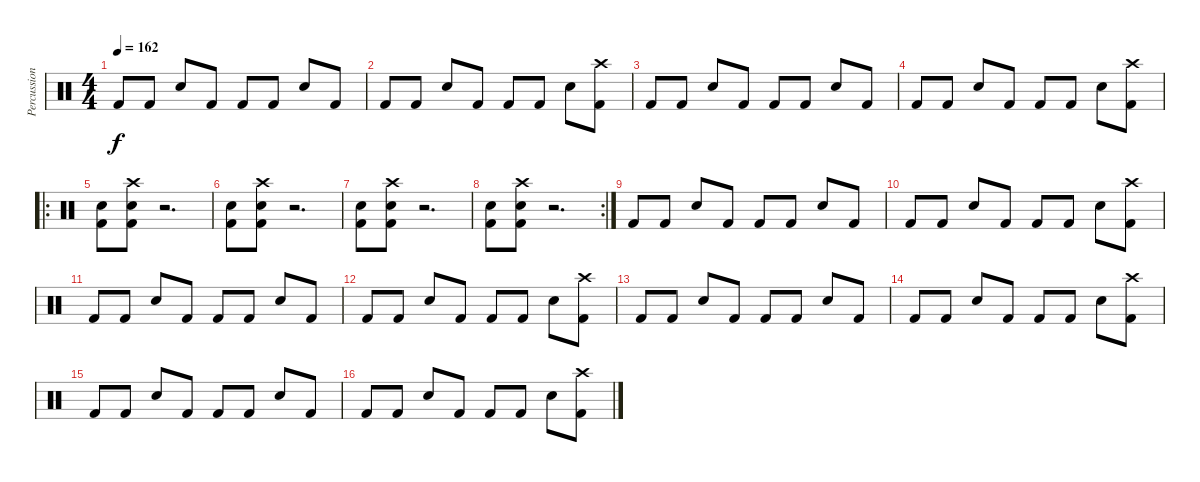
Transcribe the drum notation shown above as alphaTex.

\track ("Percussion" "Percussion") {instrument percussion}
\staff {score}
\articulation defaults
\ts (4 4)
\tempo 162
\clef neutral
\ks c "Kick (hit) 2".8{dy f} "Kick (hit) 2".8 "Snare (hit) 2".8 "Kick (hit) 2".8 "Kick (hit) 2".8 "Kick (hit) 2".8 "Snare (hit) 2".8 "Kick (hit) 2".8
|
"Kick (hit) 2".8 "Kick (hit) 2".8 "Snare (hit) 2".8 "Kick (hit) 2".8 "Kick (hit) 2".8 "Kick (hit) 2".8 "Snare (hit) 2".8 ("Crash high (hit)" "Kick (hit) 2").8 |
"Kick (hit) 2".8 "Kick (hit) 2".8 "Snare (hit) 2".8 "Kick (hit) 2".8 "Kick (hit) 2".8 "Kick (hit) 2".8 "Snare (hit) 2".8 "Kick (hit) 2".8 |
"Kick (hit) 2".8 "Kick (hit) 2".8 "Snare (hit) 2".8 "Kick (hit) 2".8 "Kick (hit) 2".8 "Kick (hit) 2".8 "Snare (hit) 2".8 ("Crash high (hit)" "Kick (hit) 2").8 |
\ro
("Snare (hit) 2" "Kick (hit) 2").8 ("Crash high (hit)" "Snare (hit) 2" "Kick (hit) 2").8 r.2{d} |
("Snare (hit) 2" "Kick (hit) 2").8 ("Crash high (hit)" "Snare (hit) 2" "Kick (hit) 2").8 r.2{d} |
("Snare (hit) 2" "Kick (hit) 2").8 ("Crash high (hit)" "Snare (hit) 2" "Kick (hit) 2").8 r.2{d} |
\rc 2
("Snare (hit) 2" "Kick (hit) 2").8 ("Crash high (hit)" "Snare (hit) 2" "Kick (hit) 2").8 r.2{d} |
"Kick (hit) 2".8 "Kick (hit) 2".8 "Snare (hit) 2".8 "Kick (hit) 2".8 "Kick (hit) 2".8 "Kick (hit) 2".8 "Snare (hit) 2".8 "Kick (hit) 2".8 |
"Kick (hit) 2".8 "Kick (hit) 2".8 "Snare (hit) 2".8 "Kick (hit) 2".8 "Kick (hit) 2".8 "Kick (hit) 2".8 "Snare (hit) 2".8 ("Crash high (hit)" "Kick (hit) 2").8 |
"Kick (hit) 2".8 "Kick (hit) 2".8 "Snare (hit) 2".8 "Kick (hit) 2".8 "Kick (hit) 2".8 "Kick (hit) 2".8 "Snare (hit) 2".8 "Kick (hit) 2".8 |
"Kick (hit) 2".8 "Kick (hit) 2".8 "Snare (hit) 2".8 "Kick (hit) 2".8 "Kick (hit) 2".8 "Kick (hit) 2".8 "Snare (hit) 2".8 ("Crash high (hit)" "Kick (hit) 2").8 |
"Kick (hit) 2".8 "Kick (hit) 2".8 "Snare (hit) 2".8 "Kick (hit) 2".8 "Kick (hit) 2".8 "Kick (hit) 2".8 "Snare (hit) 2".8 "Kick (hit) 2".8 |
"Kick (hit) 2".8 "Kick (hit) 2".8 "Snare (hit) 2".8 "Kick (hit) 2".8 "Kick (hit) 2".8 "Kick (hit) 2".8 "Snare (hit) 2".8 ("Crash high (hit)" "Kick (hit) 2").8 |
"Kick (hit) 2".8 "Kick (hit) 2".8 "Snare (hit) 2".8 "Kick (hit) 2".8 "Kick (hit) 2".8 "Kick (hit) 2".8 "Snare (hit) 2".8 "Kick (hit) 2".8 |
"Kick (hit) 2".8 "Kick (hit) 2".8 "Snare (hit) 2".8 "Kick (hit) 2".8 "Kick (hit) 2".8 "Kick (hit) 2".8 "Snare (hit) 2".8 ("Crash high (hit)" "Kick (hit) 2").8
